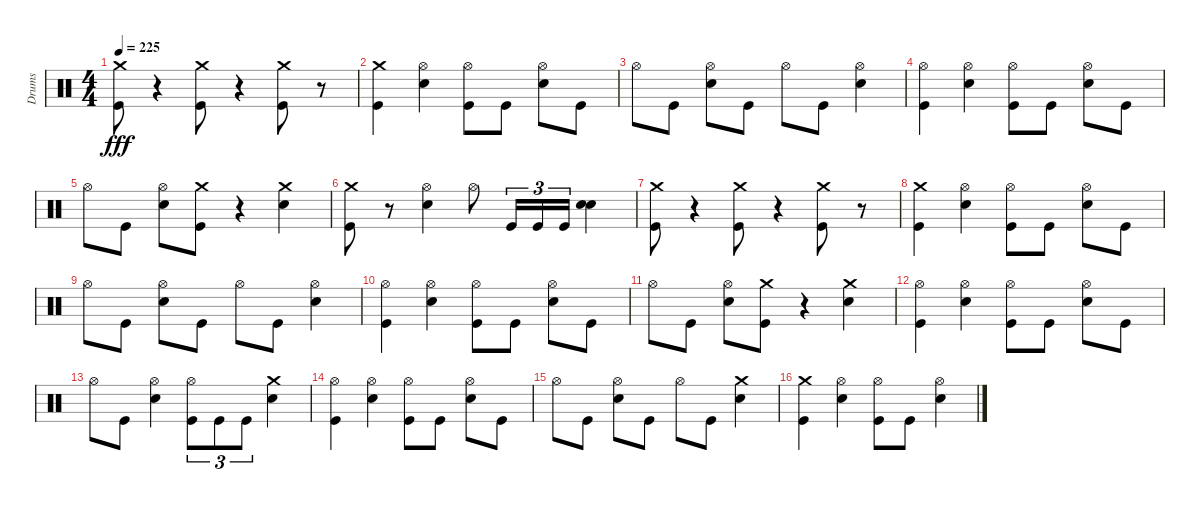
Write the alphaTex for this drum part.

\track ("Drums" "Drums") {instrument percussion}
\staff {score}
\articulation defaults
\ts (4 4)
\tempo 225
\clef neutral
\ks c
("Crash medium (hit)" "Kick (hit)").8{dy fff} r.4 ("Kick (hit)" "Crash medium (hit)").8 r.4 ("Crash medium (hit)" "Kick (hit)").8 r.8 |
("Kick (hit)" "Crash medium (hit)").4 ("Snare (hit) 2" "Hi-Hat (open)").4 ("Kick (hit)" "Hi-Hat (open)").8 "Kick (hit)".8 ("Snare (hit) 2" "Hi-Hat (open)").8 "Kick (hit)".8 |
"Hi-Hat (open)".8 "Kick (hit)".8 ("Snare (hit) 2" "Hi-Hat (open)").8 "Kick (hit)".8 "Hi-Hat (open)".8 "Kick (hit)".8 ("Snare (hit) 2" "Hi-Hat (open)").4 |
("Kick (hit)" "Hi-Hat (open)").4 ("Snare (hit) 2" "Hi-Hat (open)").4 ("Kick (hit)" "Hi-Hat (open)").8 "Kick (hit)".8 ("Snare (hit) 2" "Hi-Hat (open)").8 "Kick (hit)".8 |
"Hi-Hat (open)".8 "Kick (hit)".8 ("Snare (hit) 2" "Hi-Hat (open)").8 ("Crash medium (hit)" "Kick (hit)").8 r.4 ("Crash medium (hit)" "Snare (hit) 2").4 |
("Crash medium (hit)" "Kick (hit)").8 r.8 ("Snare (hit) 2" "Hi-Hat (open)").4 "Hi-Hat (open)".8 "Kick (hit)".16{tu (3 2)} "Kick (hit)".16{tu (3 2)} "Kick (hit)".16{tu (3 2)} ("Snare (hit) 2" "Snare (hit) 2").4 |
("Crash medium (hit)" "Kick (hit)").8 r.4 ("Kick (hit)" "Crash medium (hit)").8 r.4 ("Kick (hit)" "Crash medium (hit)").8 r.8 |
("Crash medium (hit)" "Kick (hit)").4 ("Snare (hit) 2" "Hi-Hat (open)").4 ("Kick (hit)" "Hi-Hat (open)").8 "Kick (hit)".8 ("Snare (hit) 2" "Hi-Hat (open)").8 "Kick (hit)".8 |
"Hi-Hat (open)".8 "Kick (hit)".8 ("Snare (hit) 2" "Hi-Hat (open)").8 "Kick (hit)".8 "Hi-Hat (open)".8 "Kick (hit)".8 ("Snare (hit) 2" "Hi-Hat (open)").4 |
("Kick (hit)" "Hi-Hat (open)").4 ("Snare (hit) 2" "Hi-Hat (open)").4 ("Kick (hit)" "Hi-Hat (open)").8 "Kick (hit)".8 ("Snare (hit) 2" "Hi-Hat (open)").8 "Kick (hit)".8 |
"Hi-Hat (open)".8 "Kick (hit)".8 ("Snare (hit) 2" "Hi-Hat (open)").8 ("Crash medium (hit)" "Kick (hit)").8 r.4 ("Snare (hit) 2" "Crash medium (hit)").4 |
("Kick (hit)" "Hi-Hat (open)").4 ("Snare (hit) 2" "Hi-Hat (open)").4 ("Kick (hit)" "Hi-Hat (open)").8 "Kick (hit)".8 ("Snare (hit) 2" "Hi-Hat (open)").8 "Kick (hit)".8 |
"Hi-Hat (open)".8 "Kick (hit)".8 ("Snare (hit) 2" "Hi-Hat (open)").4 ("Kick (hit)" "Hi-Hat (open)").8{tu (3 2)} "Kick (hit)".8{tu (3 2)} "Kick (hit)".8{tu (3 2)} ("Crash medium (hit)" "Snare (hit) 2").4 |
("Kick (hit)" "Hi-Hat (open)").4 ("Snare (hit) 2" "Hi-Hat (open)").4 ("Kick (hit)" "Hi-Hat (open)").8 "Kick (hit)".8 ("Snare (hit) 2" "Hi-Hat (open)").8 "Kick (hit)".8 |
"Hi-Hat (open)".8 "Kick (hit)".8 ("Snare (hit) 2" "Hi-Hat (open)").8 "Kick (hit)".8 "Hi-Hat (open)".8 "Kick (hit)".8 ("Crash medium (hit)" "Snare (hit) 2").4 |
("Kick (hit)" "Crash medium (hit)").4 ("Snare (hit) 2" "Hi-Hat (open)").4 ("Kick (hit)" "Hi-Hat (open)").8 "Kick (hit)".8 ("Snare (hit) 2" "Hi-Hat (open)").4
